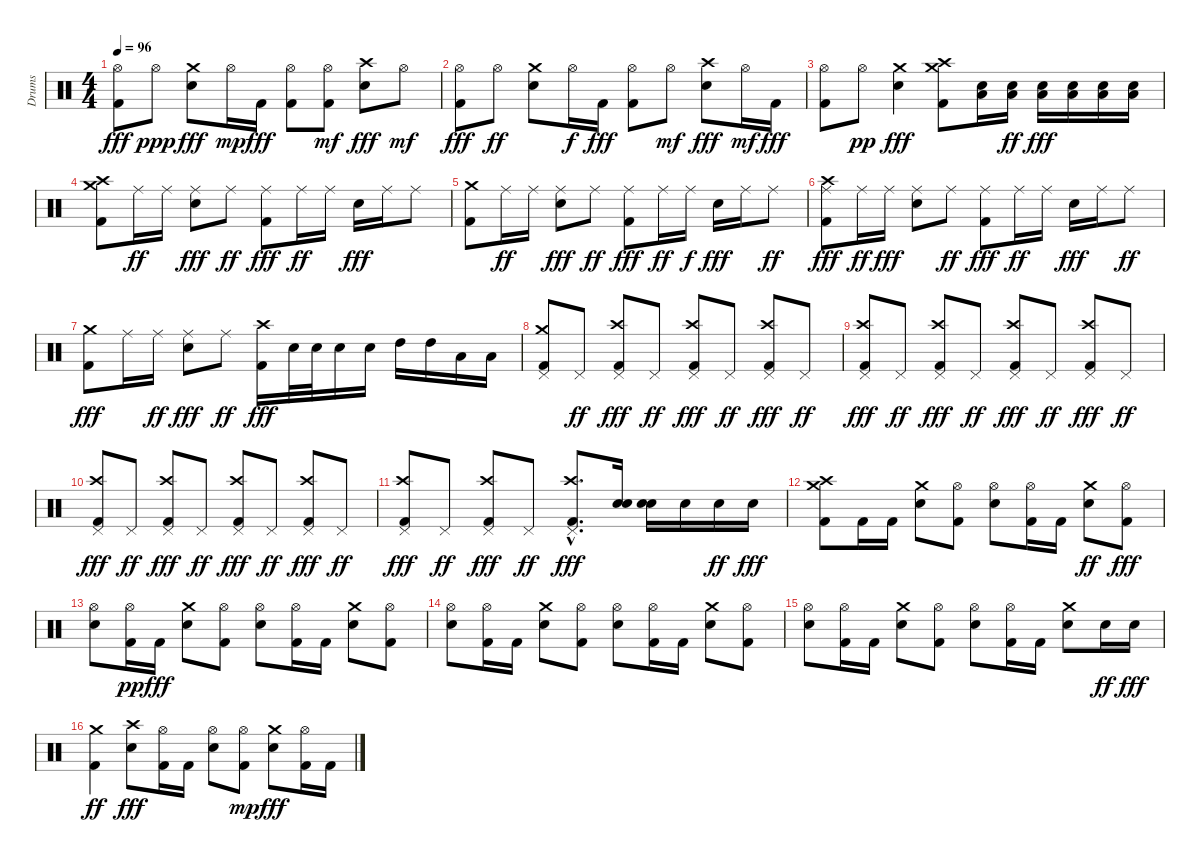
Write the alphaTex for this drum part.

\track ("Drums" "Drums") {instrument percussion}
\staff {score}
\articulation defaults
\ts (4 4)
\tempo 96
\clef neutral
\ks c
("Kick (hit) 2" "Hi-Hat (open)").8{dy fff} "Hi-Hat (open)".8{dy ppp} ("Snare (hit) 2" "Crash medium (hit)").8{dy fff} "Hi-Hat (open)".16{dy mp} "Kick (hit) 2".16{dy fff} ("Hi-Hat (open)" "Kick (hit) 2").8 ("Kick (hit) 2" "Hi-Hat (open)").8{dy mf} ("Crash high (hit)" "Snare (hit) 2").8{dy fff} "Hi-Hat (open)".8{dy mf} |
("Hi-Hat (open)" "Kick (hit) 2").8{dy fff} "Hi-Hat (open)".8{dy ff} ("Snare (hit) 2" "Crash medium (hit)").8 "Hi-Hat (open)".16{dy f} "Kick (hit) 2".16{dy fff} ("Kick (hit) 2" "Hi-Hat (open)").8 "Hi-Hat (open)".8{dy mf} ("Crash high (hit)" "Snare (hit) 2").8{dy fff} "Hi-Hat (open)".16{dy mf} "Kick (hit) 2".16{dy fff} |
("Hi-Hat (open)" "Kick (hit) 2").8 "Hi-Hat (open)".8{dy pp} ("Snare (hit) 2" "Crash medium (hit)").4{dy fff} ("Crash medium (hit)" "Crash high (hit)" "Kick (hit) 2").8 ("Snare (hit) 2" "Low Tom (hit)").16 ("Low Tom (hit)" "Snare (hit) 2").16{dy ff} ("Low Tom (hit)" "Snare (hit) 2").16{dy fff} ("Snare (hit) 2" "Low Tom (hit)").16 ("Snare (hit) 2" "Low Tom (hit)").16 ("Snare (hit) 2" "Low Tom (hit)").16 |
("Kick (hit) 2" "Crash medium (hit)" "Crash high (hit)").8 "Ride (middle)".16{dy ff} "Ride (middle)".16 ("Ride (middle)" "Snare (hit) 2").8{dy fff} "Ride (middle)".8{dy ff} ("Ride (middle)" "Kick (hit) 2").8{dy fff} "Ride (middle)".16{dy ff} "Ride (middle)".16 "Snare (hit) 2".16{dy fff} "Ride (middle)".16 "Ride (middle)".8 |
("Kick (hit) 2" "Crash medium (hit)").8 "Ride (middle)".16{dy ff} "Ride (middle)".16 ("Snare (hit) 2" "Ride (middle)").8{dy fff} "Ride (middle)".8{dy ff} ("Kick (hit) 2" "Ride (middle)").8{dy fff} "Ride (middle)".16{dy ff} "Ride (middle)".16{dy f} "Snare (hit) 2".16{dy fff} "Ride (middle)".16 "Ride (middle)".8{dy ff} |
("Kick (hit) 2" "Crash high (hit)" "Ride (middle)").8{dy fff} "Ride (middle)".16{dy ff} "Ride (middle)".16{dy fff} ("Snare (hit) 2" "Ride (middle)").8 "Ride (middle)".8{dy ff} ("Kick (hit) 2" "Ride (middle)").8{dy fff} "Ride (middle)".16{dy ff} "Ride (middle)".16 "Snare (hit) 2".16{dy fff} "Ride (middle)".16 "Ride (middle)".8{dy ff} |
("Kick (hit) 2" "Crash medium (hit)").8{dy fff} "Ride (middle)".16 "Ride (middle)".16{dy ff} ("Ride (middle)" "Snare (hit) 2").8{dy fff} "Ride (middle)".8{dy ff} ("Crash high (hit)" "Kick (hit) 2").16{dy fff} "Snare (hit) 2".32 "Snare (hit) 2".32 "Snare (hit) 2".16 "Snare (hit) 2".16 "High Tom (hit)".16 "High Tom (hit)".16 "Low Tom (hit)".16 "Low Tom (hit)".16 |
("Pedal Hi-Hat (hit)" "Kick (hit) 2" "Crash medium (hit)").8 "Pedal Hi-Hat (hit)".8{dy ff} ("Pedal Hi-Hat (hit)" "Kick (hit) 2" "Crash high (hit)").8{dy fff} "Pedal Hi-Hat (hit)".8{dy ff} ("Pedal Hi-Hat (hit)" "Crash high (hit)" "Kick (hit) 2").8{dy fff} "Pedal Hi-Hat (hit)".8{dy ff} ("Pedal Hi-Hat (hit)" "Kick (hit) 2" "Crash high (hit)").8{dy fff} "Pedal Hi-Hat (hit)".8{dy ff} |
("Pedal Hi-Hat (hit)" "Crash high (hit)" "Kick (hit) 2").8{dy fff} "Pedal Hi-Hat (hit)".8{dy ff} ("Pedal Hi-Hat (hit)" "Crash high (hit)" "Kick (hit) 2").8{dy fff} "Pedal Hi-Hat (hit)".8{dy ff} ("Pedal Hi-Hat (hit)" "Kick (hit) 2" "Crash high (hit)").8{dy fff} "Pedal Hi-Hat (hit)".8{dy ff} ("Pedal Hi-Hat (hit)" "Kick (hit) 2" "Crash high (hit)").8{dy fff} "Pedal Hi-Hat (hit)".8{dy ff} |
("Pedal Hi-Hat (hit)" "Crash high (hit)" "Kick (hit) 2").8{dy fff} "Pedal Hi-Hat (hit)".8{dy ff} ("Pedal Hi-Hat (hit)" "Crash high (hit)" "Kick (hit) 2").8{dy fff} "Pedal Hi-Hat (hit)".8{dy ff} ("Pedal Hi-Hat (hit)" "Kick (hit) 2" "Crash high (hit)").8{dy fff} "Pedal Hi-Hat (hit)".8{dy ff} ("Pedal Hi-Hat (hit)" "Kick (hit) 2" "Crash high (hit)").8{dy fff} "Pedal Hi-Hat (hit)".8{dy ff} |
("Pedal Hi-Hat (hit)" "Kick (hit) 2" "Crash high (hit)").8{dy fff} "Pedal Hi-Hat (hit)".8{dy ff} ("Pedal Hi-Hat (hit)" "Crash high (hit)" "Kick (hit) 2").8{dy fff} "Pedal Hi-Hat (hit)".8{dy ff} ("Pedal Hi-Hat (hit)"{hac} "Crash high (hit)"{hac} "Kick (hit) 2"{hac}).8{d dy fff} ("Snare (hit) 2" "Snare (hit) 2").16 ("Snare (hit) 2" "Snare (hit) 2").16 "Snare (hit) 2".16 "Snare (hit) 2".16{dy ff} "Snare (hit) 2".16{dy fff} |
("Crash medium (hit)" "Kick (hit) 2" "Crash high (hit)").8 "Kick (hit) 2".16 "Kick (hit) 2".16 ("Crash medium (hit)" "Snare (hit) 2").8 ("Hi-Hat (open)" "Kick (hit) 2").8 ("Snare (hit) 2" "Hi-Hat (open)").8 ("Kick (hit) 2" "Hi-Hat (open)").16 "Kick (hit) 2".16 ("Snare (hit) 2" "Crash medium (hit)").8{dy ff} ("Hi-Hat (open)" "Kick (hit) 2").8{dy fff} |
("Snare (hit) 2" "Hi-Hat (open)").8 ("Kick (hit) 2" "Hi-Hat (open)").16{dy pp} "Kick (hit) 2".16{dy fff} ("Snare (hit) 2" "Crash medium (hit)").8 ("Hi-Hat (open)" "Kick (hit) 2").8 ("Snare (hit) 2" "Hi-Hat (open)").8 ("Kick (hit) 2" "Hi-Hat (open)").16 "Kick (hit) 2".16 ("Snare (hit) 2" "Crash medium (hit)").8 ("Hi-Hat (open)" "Kick (hit) 2").8 |
("Snare (hit) 2" "Hi-Hat (open)").8 ("Kick (hit) 2" "Hi-Hat (open)").16 "Kick (hit) 2".16 ("Snare (hit) 2" "Crash medium (hit)").8 ("Hi-Hat (open)" "Kick (hit) 2").8 ("Snare (hit) 2" "Hi-Hat (open)").8 ("Hi-Hat (open)" "Kick (hit) 2").16 "Kick (hit) 2".16 ("Crash medium (hit)" "Snare (hit) 2").8 ("Hi-Hat (open)" "Kick (hit) 2").8 |
("Snare (hit) 2" "Hi-Hat (open)").8 ("Hi-Hat (open)" "Kick (hit) 2").16 "Kick (hit) 2".16 ("Crash medium (hit)" "Snare (hit) 2").8 ("Hi-Hat (open)" "Kick (hit) 2").8 ("Snare (hit) 2" "Hi-Hat (open)").8 ("Hi-Hat (open)" "Kick (hit) 2").16 "Kick (hit) 2".16 ("Crash medium (hit)" "Snare (hit) 2").8 "Snare (hit) 2".16{dy ff} "Snare (hit) 2".16{dy fff} |
("Kick (hit) 2" "Crash medium (hit)").4{dy ff} ("Crash high (hit)" "Snare (hit) 2").8{dy fff} ("Hi-Hat (open)" "Kick (hit) 2").16 "Kick (hit) 2".16 ("Hi-Hat (open)" "Snare (hit) 2").8 ("Kick (hit) 2" "Hi-Hat (open)").8{dy mp} ("Snare (hit) 2" "Crash medium (hit)").8{dy fff} ("Hi-Hat (open)" "Kick (hit) 2").16 "Kick (hit) 2".16
